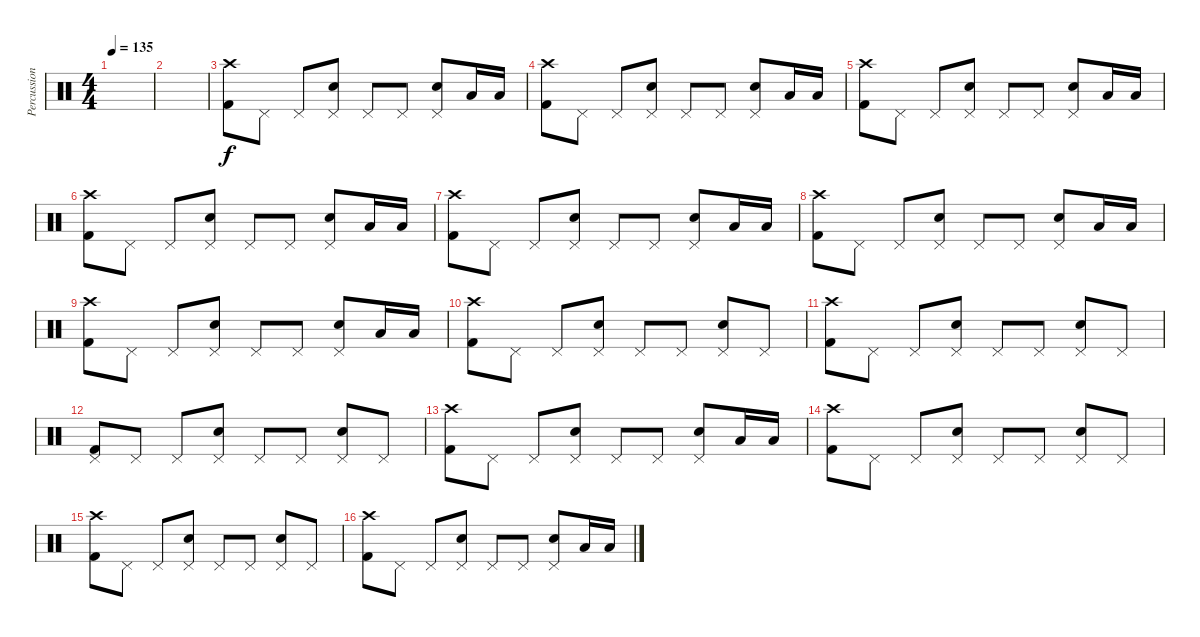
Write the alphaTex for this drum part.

\track ("Percussions" "Percussion") {instrument percussion}
\staff {score}
\articulation defaults
\ts (4 4)
\tempo 135
\clef neutral
\ks c
|
|
("Crash high (hit)" "Kick (hit) 2").8 "Pedal Hi-Hat (hit)".8 "Pedal Hi-Hat (hit)".8 ("Pedal Hi-Hat (hit)" "Snare (hit) 2").8 "Pedal Hi-Hat (hit)".8 "Pedal Hi-Hat (hit)".8 ("Pedal Hi-Hat (hit)" "Snare (hit) 2").8 "Low Tom (hit)".16 "Low Tom (hit)".16 |
("Crash high (hit)" "Kick (hit) 2").8 "Pedal Hi-Hat (hit)".8 "Pedal Hi-Hat (hit)".8 ("Pedal Hi-Hat (hit)" "Snare (hit) 2").8 "Pedal Hi-Hat (hit)".8 "Pedal Hi-Hat (hit)".8 ("Pedal Hi-Hat (hit)" "Snare (hit) 2").8 "Low Tom (hit)".16 "Low Tom (hit)".16 |
("Crash high (hit)" "Kick (hit) 2").8 "Pedal Hi-Hat (hit)".8 "Pedal Hi-Hat (hit)".8 ("Pedal Hi-Hat (hit)" "Snare (hit) 2").8 "Pedal Hi-Hat (hit)".8 "Pedal Hi-Hat (hit)".8 ("Pedal Hi-Hat (hit)" "Snare (hit) 2").8 "Low Tom (hit)".16 "Low Tom (hit)".16 |
("Crash high (hit)" "Kick (hit) 2").8 "Pedal Hi-Hat (hit)".8 "Pedal Hi-Hat (hit)".8 ("Pedal Hi-Hat (hit)" "Snare (hit) 2").8 "Pedal Hi-Hat (hit)".8 "Pedal Hi-Hat (hit)".8 ("Pedal Hi-Hat (hit)" "Snare (hit) 2").8 "Low Tom (hit)".16 "Low Tom (hit)".16 |
("Crash high (hit)" "Kick (hit) 2").8 "Pedal Hi-Hat (hit)".8 "Pedal Hi-Hat (hit)".8 ("Pedal Hi-Hat (hit)" "Snare (hit) 2").8 "Pedal Hi-Hat (hit)".8 "Pedal Hi-Hat (hit)".8 ("Pedal Hi-Hat (hit)" "Snare (hit) 2").8 "Low Tom (hit)".16 "Low Tom (hit)".16 |
("Crash high (hit)" "Kick (hit) 2").8 "Pedal Hi-Hat (hit)".8 "Pedal Hi-Hat (hit)".8 ("Pedal Hi-Hat (hit)" "Snare (hit) 2").8 "Pedal Hi-Hat (hit)".8 "Pedal Hi-Hat (hit)".8 ("Pedal Hi-Hat (hit)" "Snare (hit) 2").8 "Low Tom (hit)".16 "Low Tom (hit)".16 |
("Crash high (hit)" "Kick (hit) 2").8 "Pedal Hi-Hat (hit)".8 "Pedal Hi-Hat (hit)".8 ("Pedal Hi-Hat (hit)" "Snare (hit) 2").8 "Pedal Hi-Hat (hit)".8 "Pedal Hi-Hat (hit)".8 ("Pedal Hi-Hat (hit)" "Snare (hit) 2").8 "Low Tom (hit)".16 "Low Tom (hit)".16 |
("Crash high (hit)" "Kick (hit) 2").8 "Pedal Hi-Hat (hit)".8 "Pedal Hi-Hat (hit)".8 ("Pedal Hi-Hat (hit)" "Snare (hit) 2").8 "Pedal Hi-Hat (hit)".8 "Pedal Hi-Hat (hit)".8 ("Pedal Hi-Hat (hit)" "Snare (hit) 2").8 "Pedal Hi-Hat (hit)".8 |
("Crash high (hit)" "Kick (hit) 2").8 "Pedal Hi-Hat (hit)".8 "Pedal Hi-Hat (hit)".8 ("Pedal Hi-Hat (hit)" "Snare (hit) 2").8 "Pedal Hi-Hat (hit)".8 "Pedal Hi-Hat (hit)".8 ("Pedal Hi-Hat (hit)" "Snare (hit) 2").8 "Pedal Hi-Hat (hit)".8 |
("Pedal Hi-Hat (hit)" "Kick (hit) 2").8 "Pedal Hi-Hat (hit)".8 "Pedal Hi-Hat (hit)".8 ("Pedal Hi-Hat (hit)" "Snare (hit) 2").8 "Pedal Hi-Hat (hit)".8 "Pedal Hi-Hat (hit)".8 ("Pedal Hi-Hat (hit)" "Snare (hit) 2").8 "Pedal Hi-Hat (hit)".8 |
("Crash high (hit)" "Kick (hit) 2").8 "Pedal Hi-Hat (hit)".8 "Pedal Hi-Hat (hit)".8 ("Pedal Hi-Hat (hit)" "Snare (hit) 2").8 "Pedal Hi-Hat (hit)".8 "Pedal Hi-Hat (hit)".8 ("Pedal Hi-Hat (hit)" "Snare (hit) 2").8 "Low Tom (hit)".16 "Low Tom (hit)".16 |
("Crash high (hit)" "Kick (hit) 2").8 "Pedal Hi-Hat (hit)".8 "Pedal Hi-Hat (hit)".8 ("Pedal Hi-Hat (hit)" "Snare (hit) 2").8 "Pedal Hi-Hat (hit)".8 "Pedal Hi-Hat (hit)".8 ("Pedal Hi-Hat (hit)" "Snare (hit) 2").8 "Pedal Hi-Hat (hit)".8 |
("Crash high (hit)" "Kick (hit) 2").8 "Pedal Hi-Hat (hit)".8 "Pedal Hi-Hat (hit)".8 ("Pedal Hi-Hat (hit)" "Snare (hit) 2").8 "Pedal Hi-Hat (hit)".8 "Pedal Hi-Hat (hit)".8 ("Pedal Hi-Hat (hit)" "Snare (hit) 2").8 "Pedal Hi-Hat (hit)".8 |
("Crash high (hit)" "Kick (hit) 2").8 "Pedal Hi-Hat (hit)".8 "Pedal Hi-Hat (hit)".8 ("Pedal Hi-Hat (hit)" "Snare (hit) 2").8 "Pedal Hi-Hat (hit)".8 "Pedal Hi-Hat (hit)".8 ("Pedal Hi-Hat (hit)" "Snare (hit) 2").8 "Low Tom (hit)".16 "Low Tom (hit)".16
